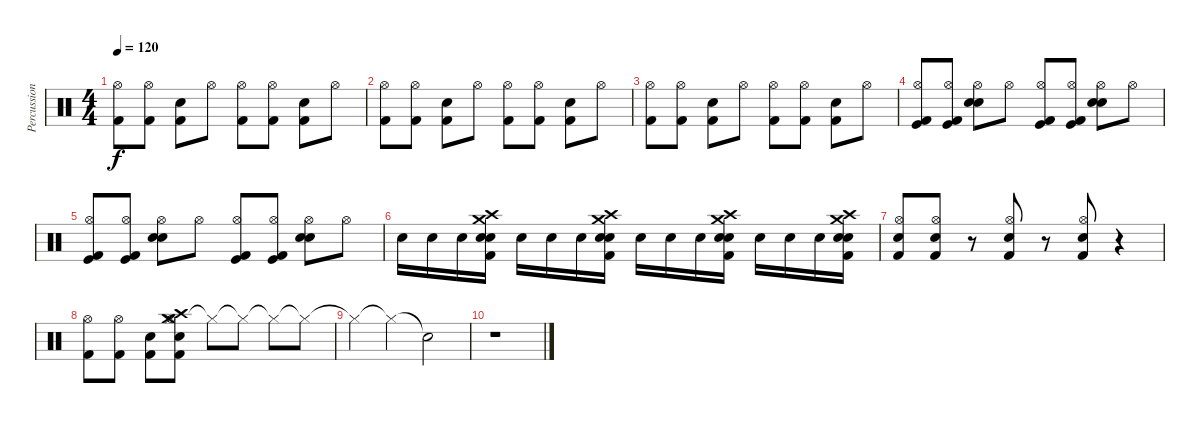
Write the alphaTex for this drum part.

\track ("Percussion" "Percussion") {instrument percussion}
\staff {score}
\articulation defaults
\ts (4 4)
\tempo 120
\clef neutral
\ks c
("Kick (hit) 2" "Hi-Hat (open)").8{dy f} ("Kick (hit) 2" "Hi-Hat (open)").8 ("Kick (hit) 2" "Electric Snare (hit)").8 "Hi-Hat (open)".8 ("Kick (hit) 2" "Hi-Hat (open)").8 ("Kick (hit) 2" "Hi-Hat (open)").8 ("Kick (hit) 2" "Electric Snare (hit)").8 "Hi-Hat (open)".8 |
("Kick (hit) 2" "Hi-Hat (open)").8 ("Kick (hit) 2" "Hi-Hat (open)").8 ("Kick (hit) 2" "Electric Snare (hit)").8 "Hi-Hat (open)".8 ("Kick (hit) 2" "Hi-Hat (open)").8 ("Kick (hit) 2" "Hi-Hat (open)").8 ("Kick (hit) 2" "Electric Snare (hit)").8 "Hi-Hat (open)".8 |
("Kick (hit) 2" "Hi-Hat (open)").8 ("Kick (hit) 2" "Hi-Hat (open)").8 ("Kick (hit) 2" "Electric Snare (hit)").8 "Hi-Hat (open)".8 ("Kick (hit) 2" "Hi-Hat (open)").8 ("Kick (hit) 2" "Hi-Hat (open)").8 ("Kick (hit) 2" "Electric Snare (hit)").8 "Hi-Hat (open)".8 |
("Kick (hit)" "Kick (hit) 2" "Hi-Hat (open)").8 ("Kick (hit)" "Kick (hit) 2" "Hi-Hat (open)").8 ("Snare (hit) 2" "Electric Snare (hit)" "Hi-Hat (open)").8 "Hi-Hat (open)".8 ("Kick (hit)" "Kick (hit) 2" "Hi-Hat (open)").8 ("Kick (hit)" "Kick (hit) 2" "Hi-Hat (open)").8 ("Snare (hit) 2" "Electric Snare (hit)" "Hi-Hat (open)").8 "Hi-Hat (open)".8 |
("Kick (hit)" "Kick (hit) 2" "Hi-Hat (open)").8 ("Kick (hit)" "Kick (hit) 2" "Hi-Hat (open)").8 ("Snare (hit) 2" "Electric Snare (hit)" "Hi-Hat (open)").8 "Hi-Hat (open)".8 ("Kick (hit)" "Kick (hit) 2" "Hi-Hat (open)").8 ("Kick (hit)" "Kick (hit) 2" "Hi-Hat (open)").8 ("Snare (hit) 2" "Electric Snare (hit)" "Hi-Hat (open)").8 "Hi-Hat (open)".8 |
"Electric Snare (hit)".16 "Electric Snare (hit)".16 "Electric Snare (hit)".16 ("Crash medium (hit)" "Snare (hit) 2" "Kick (hit) 2" "Crash high (hit)" "Electric Snare (hit)").16 "Electric Snare (hit)".16 "Electric Snare (hit)".16 "Electric Snare (hit)".16 ("Crash medium (hit)" "Crash high (hit)" "Kick (hit) 2" "Snare (hit) 2" "Electric Snare (hit)").16 "Electric Snare (hit)".16 "Electric Snare (hit)".16 "Electric Snare (hit)".16 ("Crash medium (hit)" "Crash high (hit)" "Kick (hit) 2" "Snare (hit) 2" "Electric Snare (hit)").16 "Electric Snare (hit)".16 "Electric Snare (hit)".16 "Electric Snare (hit)".16 ("Crash medium (hit)" "Crash high (hit)" "Kick (hit) 2" "Snare (hit) 2" "Electric Snare (hit)").16 |
("Kick (hit) 2" "Electric Snare (hit)" "Hi-Hat (open)").8 ("Kick (hit) 2" "Electric Snare (hit)" "Hi-Hat (open)").8 r.8 ("Kick (hit) 2" "Electric Snare (hit)" "Hi-Hat (open)").8 r.8 ("Kick (hit) 2" "Electric Snare (hit)" "Hi-Hat (open)").8 r.4 |
("Kick (hit) 2" "Hi-Hat (open)").8 ("Kick (hit) 2" "Hi-Hat (open)").8 ("Kick (hit) 2" "Electric Snare (hit)").8 ("Hi-Hat (closed)" "Crash medium (hit)" "Crash high (hit)" "Kick (hit) 2" "Electric Snare (hit)" "Hi-Hat (open)").8 "Hi-Hat (closed)"{t}.8 "Hi-Hat (closed)"{t}.8 "Hi-Hat (closed)"{t}.8 "Hi-Hat (closed)"{t}.8 |
"Hi-Hat (closed)"{t}.4 "Hi-Hat (closed)"{t}.4 "Snare (hit)"{t}.2 |
r.1
